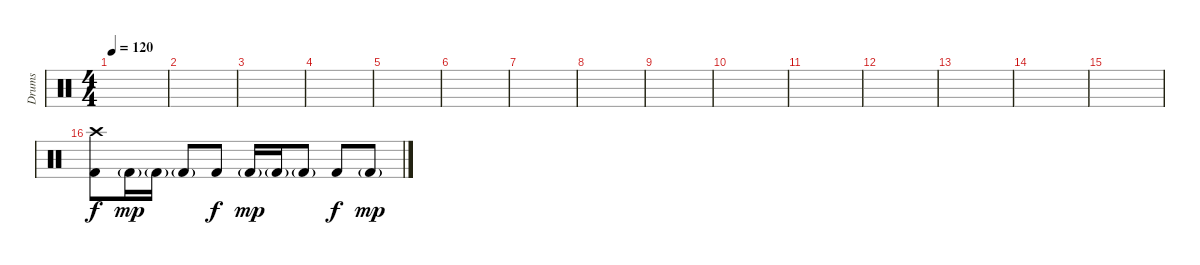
\track ("Drums" "Drums") {instrument percussion}
\staff {score}
\articulation defaults
\ts (4 4)
\tempo 120
\clef neutral
\ks c
|
|
|
|
|
|
|
|
|
|
|
|
|
|
|
("Crash high (hit)" "Kick (hit) 2").8 "Kick (hit) 2"{g}.16{dy mp} "Kick (hit) 2"{g}.16 "Kick (hit) 2"{g}.8 "Kick (hit) 2".8{dy f} "Kick (hit) 2"{g}.16{dy mp} "Kick (hit) 2"{g}.16 "Kick (hit) 2"{g}.8 "Kick (hit) 2".8{dy f} "Kick (hit) 2"{g}.8{dy mp}
